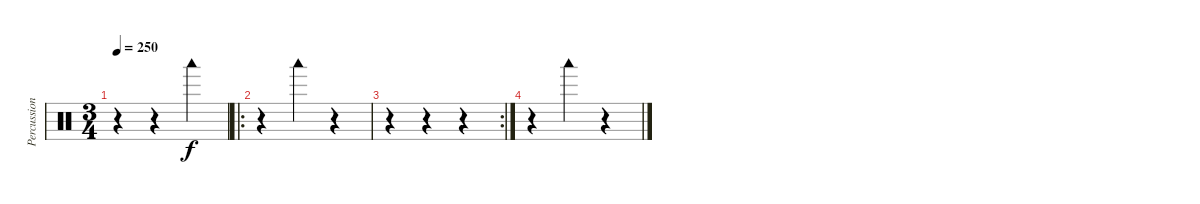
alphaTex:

\track ("Percussion" "Percussion") {instrument percussion}
\staff {score}
\articulation defaults
\ts (3 4)
\tempo 250
\clef neutral
\ks c
r.4{dy f} r.4 "Woodblock low (hit)".4 |
\ro
r.4 "Woodblock low (hit)".4 r.4 |
\rc 2
r.4 r.4 r.4 |
r.4 "Woodblock low (hit)".4 r.4
